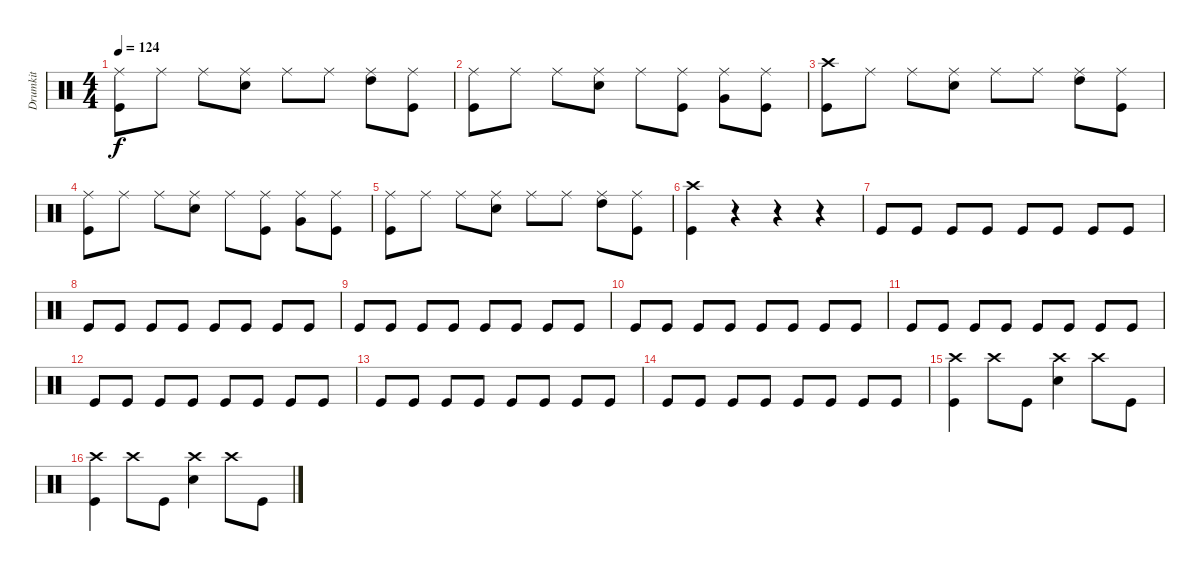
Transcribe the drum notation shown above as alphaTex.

\track ("Drumkit" "Drumkit") {instrument percussion}
\staff {score}
\articulation defaults
\ts (4 4)
\tempo 124
\clef neutral
\ks c
("Kick (hit)" "Ride (middle)").8{dy f} "Ride (middle)".8 "Ride (middle)".8 ("Snare (hit) 2" "Ride (middle)").8 "Ride (middle)".8 "Ride (middle)".8 ("Ride (middle)" "High Tom (hit)").8 ("Kick (hit)" "Ride (middle)").8 |
("Kick (hit)" "Ride (middle)").8 "Ride (middle)".8 "Ride (middle)".8 ("Snare (hit) 2" "Ride (middle)").8 "Ride (middle)".8 ("Ride (middle)" "Kick (hit)").8 ("Ride (middle)" "Very Low Tom (hit)").8 ("Kick (hit)" "Ride (middle)").8 |
("Kick (hit)" "Crash high (hit)").8 "Ride (middle)".8 "Ride (middle)".8 ("Snare (hit) 2" "Ride (middle)").8 "Ride (middle)".8 "Ride (middle)".8 ("Ride (middle)" "High Tom (hit)").8 ("Kick (hit)" "Ride (middle)").8 |
("Kick (hit)" "Ride (middle)").8 "Ride (middle)".8 "Ride (middle)".8 ("Snare (hit) 2" "Ride (middle)").8 "Ride (middle)".8 ("Ride (middle)" "Kick (hit)").8 ("Ride (middle)" "Very Low Tom (hit)").8 ("Kick (hit)" "Ride (middle)").8 |
("Kick (hit)" "Ride (middle)").8 "Ride (middle)".8 "Ride (middle)".8 ("Snare (hit) 2" "Ride (middle)").8 "Ride (middle)".8 "Ride (middle)".8 ("Ride (middle)" "High Tom (hit)").8 ("Kick (hit)" "Ride (middle)").8 |
("Kick (hit)" "Crash high (hit)").4 r.4 r.4 r.4 |
"Kick (hit)".8 "Kick (hit)".8 "Kick (hit)".8 "Kick (hit)".8 "Kick (hit)".8 "Kick (hit)".8 "Kick (hit)".8 "Kick (hit)".8 |
"Kick (hit)".8 "Kick (hit)".8 "Kick (hit)".8 "Kick (hit)".8 "Kick (hit)".8 "Kick (hit)".8 "Kick (hit)".8 "Kick (hit)".8 |
"Kick (hit)".8 "Kick (hit)".8 "Kick (hit)".8 "Kick (hit)".8 "Kick (hit)".8 "Kick (hit)".8 "Kick (hit)".8 "Kick (hit)".8 |
"Kick (hit)".8 "Kick (hit)".8 "Kick (hit)".8 "Kick (hit)".8 "Kick (hit)".8 "Kick (hit)".8 "Kick (hit)".8 "Kick (hit)".8 |
"Kick (hit)".8 "Kick (hit)".8 "Kick (hit)".8 "Kick (hit)".8 "Kick (hit)".8 "Kick (hit)".8 "Kick (hit)".8 "Kick (hit)".8 |
"Kick (hit)".8 "Kick (hit)".8 "Kick (hit)".8 "Kick (hit)".8 "Kick (hit)".8 "Kick (hit)".8 "Kick (hit)".8 "Kick (hit)".8 |
"Kick (hit)".8 "Kick (hit)".8 "Kick (hit)".8 "Kick (hit)".8 "Kick (hit)".8 "Kick (hit)".8 "Kick (hit)".8 "Kick (hit)".8 |
"Kick (hit)".8 "Kick (hit)".8 "Kick (hit)".8 "Kick (hit)".8 "Kick (hit)".8 "Kick (hit)".8 "Kick (hit)".8 "Kick (hit)".8 |
("Kick (hit)" "Crash high (hit)").4 "Crash high (hit)".8 "Kick (hit)".8 ("Snare (hit) 2" "Crash high (hit)").4 "Crash high (hit)".8 "Kick (hit)".8 |
("Kick (hit)" "Crash high (hit)").4 "Crash high (hit)".8 "Kick (hit)".8 ("Snare (hit) 2" "Crash high (hit)").4 "Crash high (hit)".8 "Kick (hit)".8
